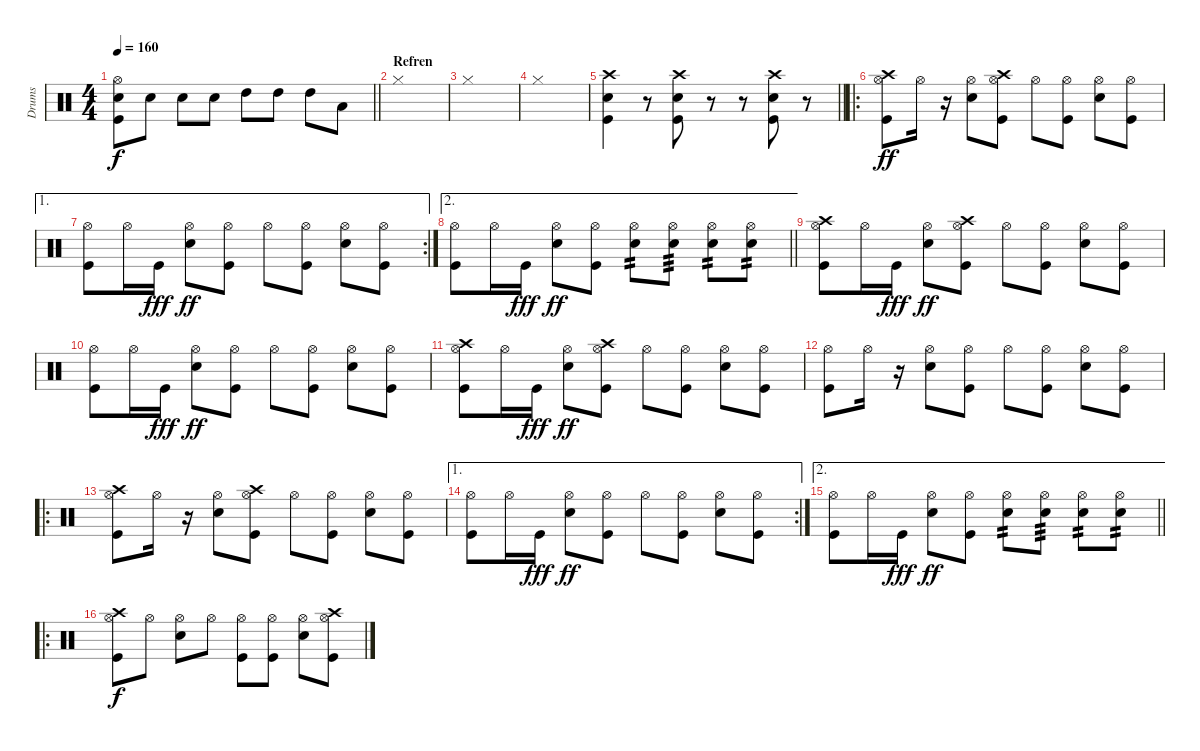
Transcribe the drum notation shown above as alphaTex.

\track ("Drums" "Drums") {instrument percussion}
\staff {score}
\articulation defaults
\ts (4 4)
\tempo 160
\clef neutral
\barLineRight lightlight
\ks c
("Kick (hit)" "Snare (hit) 2" "Hi-Hat (open)").8{dy f} "Snare (hit) 2".8 "Snare (hit) 2".8 "Snare (hit) 2".8 "High Tom (hit)".8 "High Tom (hit)".8 "High Tom (hit)".8 "Low Tom (hit)".8 |
\section ("" "Refren")
"Hi-Hat (closed)".1 |
"Hi-Hat (closed)".1 |
"Hi-Hat (closed)".1 |
\barLineRight lightlight
("Kick (hit)" "Snare (hit) 2" "Crash high (hit)").4 r.8 ("Kick (hit)" "Snare (hit) 2" "Crash high (hit)").8 r.8 r.8 ("Kick (hit)" "Snare (hit) 2" "Crash high (hit)").8 r.8 |
\ro
("Kick (hit)" "Hi-Hat (open)" "Crash high (hit)").8{dy ff} "Hi-Hat (open)".16 r.16 ("Snare (hit) 2" "Hi-Hat (open)").8 ("Kick (hit)" "Hi-Hat (open)" "Crash high (hit)").8 "Hi-Hat (open)".8 ("Kick (hit)" "Hi-Hat (open)").8 ("Snare (hit) 2" "Hi-Hat (open)").8 ("Kick (hit)" "Hi-Hat (open)").8 |
\ae 1
\rc 2
("Kick (hit)" "Hi-Hat (open)").8 "Hi-Hat (open)".16 "Kick (hit)".16{dy fff} ("Snare (hit) 2" "Hi-Hat (open)").8{dy ff} ("Kick (hit)" "Hi-Hat (open)").8 "Hi-Hat (open)".8 ("Kick (hit)" "Hi-Hat (open)").8 ("Snare (hit) 2" "Hi-Hat (open)").8 ("Kick (hit)" "Hi-Hat (open)").8 |
\ae 2
\barLineRight lightlight
("Kick (hit)" "Hi-Hat (open)").8 "Hi-Hat (open)".16 "Kick (hit)".16{dy fff} ("Snare (hit) 2" "Hi-Hat (open)").8{dy ff} ("Kick (hit)" "Hi-Hat (open)").8 ("Snare (hit) 2" "Hi-Hat (open)").8{tp 2} ("Snare (hit) 2" "Hi-Hat (open)").8{tp 3} ("Snare (hit) 2" "Hi-Hat (open)").8{tp 2} ("Snare (hit) 2" "Hi-Hat (open)").8{tp 2} |
("Kick (hit)" "Hi-Hat (open)" "Crash high (hit)").8 "Hi-Hat (open)".16 "Kick (hit)".16{dy fff} ("Snare (hit) 2" "Hi-Hat (open)").8{dy ff} ("Kick (hit)" "Hi-Hat (open)" "Crash high (hit)").8 "Hi-Hat (open)".8 ("Kick (hit)" "Hi-Hat (open)").8 ("Snare (hit) 2" "Hi-Hat (open)").8 ("Kick (hit)" "Hi-Hat (open)").8 |
("Kick (hit)" "Hi-Hat (open)").8 "Hi-Hat (open)".16 "Kick (hit)".16{dy fff} ("Snare (hit) 2" "Hi-Hat (open)").8{dy ff} ("Kick (hit)" "Hi-Hat (open)").8 "Hi-Hat (open)".8 ("Kick (hit)" "Hi-Hat (open)").8 ("Snare (hit) 2" "Hi-Hat (open)").8 ("Kick (hit)" "Hi-Hat (open)").8 |
("Kick (hit)" "Hi-Hat (open)" "Crash high (hit)").8 "Hi-Hat (open)".16 "Kick (hit)".16{dy fff} ("Snare (hit) 2" "Hi-Hat (open)").8{dy ff} ("Kick (hit)" "Hi-Hat (open)" "Crash high (hit)").8 "Hi-Hat (open)".8 ("Kick (hit)" "Hi-Hat (open)").8 ("Snare (hit) 2" "Hi-Hat (open)").8 ("Kick (hit)" "Hi-Hat (open)").8 |
("Kick (hit)" "Hi-Hat (open)").8 "Hi-Hat (open)".16 r.16 ("Snare (hit) 2" "Hi-Hat (open)").8 ("Kick (hit)" "Hi-Hat (open)").8 "Hi-Hat (open)".8 ("Kick (hit)" "Hi-Hat (open)").8 ("Snare (hit) 2" "Hi-Hat (open)").8 ("Kick (hit)" "Hi-Hat (open)").8 |
\ro
("Kick (hit)" "Hi-Hat (open)" "Crash high (hit)").8 "Hi-Hat (open)".16 r.16 ("Snare (hit) 2" "Hi-Hat (open)").8 ("Kick (hit)" "Hi-Hat (open)" "Crash high (hit)").8 "Hi-Hat (open)".8 ("Kick (hit)" "Hi-Hat (open)").8 ("Snare (hit) 2" "Hi-Hat (open)").8 ("Kick (hit)" "Hi-Hat (open)").8 |
\ae 1
\rc 2
("Kick (hit)" "Hi-Hat (open)").8 "Hi-Hat (open)".16 "Kick (hit)".16{dy fff} ("Snare (hit) 2" "Hi-Hat (open)").8{dy ff} ("Kick (hit)" "Hi-Hat (open)").8 "Hi-Hat (open)".8 ("Kick (hit)" "Hi-Hat (open)").8 ("Snare (hit) 2" "Hi-Hat (open)").8 ("Kick (hit)" "Hi-Hat (open)").8 |
\ae 2
\barLineRight lightlight
("Kick (hit)" "Hi-Hat (open)").8 "Hi-Hat (open)".16 "Kick (hit)".16{dy fff} ("Snare (hit) 2" "Hi-Hat (open)").8{dy ff} ("Kick (hit)" "Hi-Hat (open)").8 ("Snare (hit) 2" "Hi-Hat (open)").8{tp 2} ("Snare (hit) 2" "Hi-Hat (open)").8{tp 3} ("Snare (hit) 2" "Hi-Hat (open)").8{tp 2} ("Snare (hit) 2" "Hi-Hat (open)").8{tp 2} |
\ro
("Kick (hit)" "Hi-Hat (open)" "Crash high (hit)").8{dy f} "Hi-Hat (open)".8 ("Snare (hit) 2" "Hi-Hat (open)").8 "Hi-Hat (open)".8 ("Kick (hit)" "Hi-Hat (open)").8 ("Kick (hit)" "Hi-Hat (open)").8 ("Snare (hit) 2" "Hi-Hat (open)").8 ("Kick (hit)" "Hi-Hat (open)" "Crash high (hit)").8
